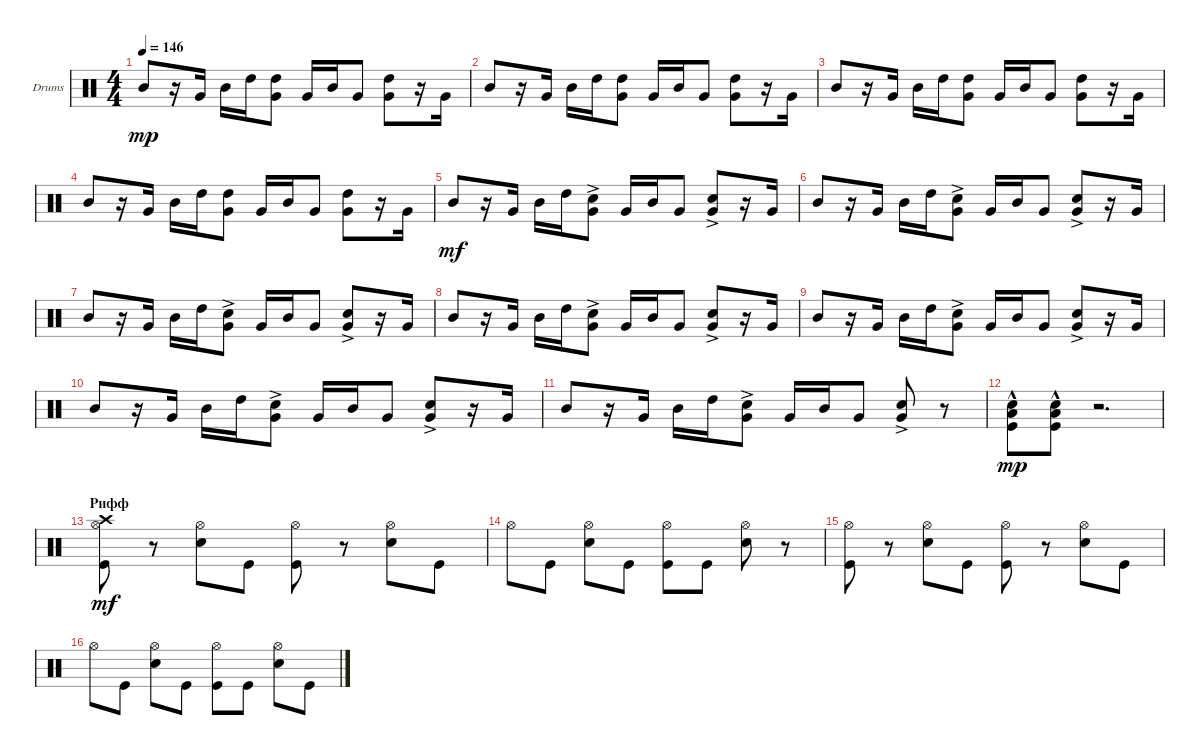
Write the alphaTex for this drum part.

\defaultSystemsLayout 4
\bracketExtendMode groupsimilarinstruments
\firstSystemTrackNameOrientation horizontal
\otherSystemsTrackNameOrientation horizontal
\track ("Drumkit" "Drums") {instrument percussion}
\staff {score}
\articulation defaults
\ts (4 4)
\tempo 146
\clef neutral
\ks c "Mid Tom (hit)".8{dy mp}
r.16 "Very Low Tom (hit)".16 "Mid Tom (hit)".16 "High Tom (hit)".16 ("Very Low Tom (hit)" "High Tom (hit)").8 "Very Low Tom (hit)".16 "Mid Tom (hit)".16 "Very Low Tom (hit)".8 ("Very Low Tom (hit)" "High Tom (hit)").8 r.16 "Very Low Tom (hit)".16 |
"Mid Tom (hit)".8 r.16 "Very Low Tom (hit)".16 "Mid Tom (hit)".16 "High Tom (hit)".16 ("Very Low Tom (hit)" "High Tom (hit)").8 "Very Low Tom (hit)".16 "Mid Tom (hit)".16 "Very Low Tom (hit)".8 ("Very Low Tom (hit)" "High Tom (hit)").8 r.16 "Very Low Tom (hit)".16 |
"Mid Tom (hit)".8 r.16 "Very Low Tom (hit)".16 "Mid Tom (hit)".16 "High Tom (hit)".16 ("Very Low Tom (hit)" "High Tom (hit)").8 "Very Low Tom (hit)".16 "Mid Tom (hit)".16 "Very Low Tom (hit)".8 ("Very Low Tom (hit)" "High Tom (hit)").8 r.16 "Very Low Tom (hit)".16 |
"Mid Tom (hit)".8 r.16 "Very Low Tom (hit)".16 "Mid Tom (hit)".16 "High Tom (hit)".16 ("Very Low Tom (hit)" "High Tom (hit)").8 "Very Low Tom (hit)".16 "Mid Tom (hit)".16 "Very Low Tom (hit)".8 ("Very Low Tom (hit)" "High Tom (hit)").8 r.16 "Very Low Tom (hit)".16 |
"Mid Tom (hit)".8{dy mf} r.16 "Very Low Tom (hit)".16 "Mid Tom (hit)".16 "High Tom (hit)".16 ("Very Low Tom (hit)" "Snare (hit) 2"{ac}).8 "Very Low Tom (hit)".16 "Mid Tom (hit)".16 "Very Low Tom (hit)".8 ("Very Low Tom (hit)" "Snare (hit) 2"{ac}).8 r.16 "Very Low Tom (hit)".16 |
"Mid Tom (hit)".8 r.16 "Very Low Tom (hit)".16 "Mid Tom (hit)".16 "High Tom (hit)".16 ("Very Low Tom (hit)" "Snare (hit) 2"{ac}).8 "Very Low Tom (hit)".16 "Mid Tom (hit)".16 "Very Low Tom (hit)".8 ("Very Low Tom (hit)" "Snare (hit) 2"{ac}).8 r.16 "Very Low Tom (hit)".16 |
"Mid Tom (hit)".8 r.16 "Very Low Tom (hit)".16 "Mid Tom (hit)".16 "High Tom (hit)".16 ("Very Low Tom (hit)" "Snare (hit) 2"{ac}).8 "Very Low Tom (hit)".16 "Mid Tom (hit)".16 "Very Low Tom (hit)".8 ("Very Low Tom (hit)" "Snare (hit) 2"{ac}).8 r.16 "Very Low Tom (hit)".16 |
"Mid Tom (hit)".8 r.16 "Very Low Tom (hit)".16 "Mid Tom (hit)".16 "High Tom (hit)".16 ("Very Low Tom (hit)" "Snare (hit) 2"{ac}).8 "Very Low Tom (hit)".16 "Mid Tom (hit)".16 "Very Low Tom (hit)".8 ("Very Low Tom (hit)" "Snare (hit) 2"{ac}).8 r.16 "Very Low Tom (hit)".16 |
"Mid Tom (hit)".8 r.16 "Very Low Tom (hit)".16 "Mid Tom (hit)".16 "High Tom (hit)".16 ("Very Low Tom (hit)" "Snare (hit) 2"{ac}).8 "Very Low Tom (hit)".16 "Mid Tom (hit)".16 "Very Low Tom (hit)".8 ("Very Low Tom (hit)" "Snare (hit) 2"{ac}).8 r.16 "Very Low Tom (hit)".16 |
"Mid Tom (hit)".8 r.16 "Very Low Tom (hit)".16 "Mid Tom (hit)".16 "High Tom (hit)".16 ("Very Low Tom (hit)" "Snare (hit) 2"{ac}).8 "Very Low Tom (hit)".16 "Mid Tom (hit)".16 "Very Low Tom (hit)".8 ("Very Low Tom (hit)" "Snare (hit) 2"{ac}).8 r.16 "Very Low Tom (hit)".16 |
"Mid Tom (hit)".8 r.16 "Very Low Tom (hit)".16 "Mid Tom (hit)".16 "High Tom (hit)".16 ("Very Low Tom (hit)" "Snare (hit) 2"{ac}).8 "Very Low Tom (hit)".16 "Mid Tom (hit)".16 "Very Low Tom (hit)".8 ("Very Low Tom (hit)" "Snare (hit) 2"{ac}).8 r.8 |
("Snare (hit) 2"{hac} "Kick (hit)"{hac} "Low Tom (hit)"{hac}).8{dy mp} ("Snare (hit) 2"{hac} "Kick (hit)"{hac} "Low Tom (hit)"{hac}).8 r.2{d} |
\section ("" "Рифф")
("Kick (hit)" "Hi-Hat (open)" "Crash high (hit)").8{dy mf} r.8 ("Snare (hit) 2" "Hi-Hat (open)").8 "Kick (hit)".8 ("Kick (hit)" "Hi-Hat (open)").8 r.8 ("Snare (hit) 2" "Hi-Hat (open)").8 "Kick (hit)".8 |
"Hi-Hat (open)".8 "Kick (hit)".8 ("Snare (hit) 2" "Hi-Hat (open)").8 "Kick (hit)".8 ("Hi-Hat (open)" "Kick (hit)").8 "Kick (hit)".8 ("Snare (hit) 2" "Hi-Hat (open)").8 r.8 |
("Kick (hit)" "Hi-Hat (open)").8 r.8 ("Snare (hit) 2" "Hi-Hat (open)").8 "Kick (hit)".8 ("Kick (hit)" "Hi-Hat (open)").8 r.8 ("Snare (hit) 2" "Hi-Hat (open)").8 "Kick (hit)".8 |
"Hi-Hat (open)".8 "Kick (hit)".8 ("Snare (hit) 2" "Hi-Hat (open)").8 "Kick (hit)".8 ("Hi-Hat (open)" "Kick (hit)").8 "Kick (hit)".8 ("Snare (hit) 2" "Hi-Hat (open)").8 "Kick (hit)".8
